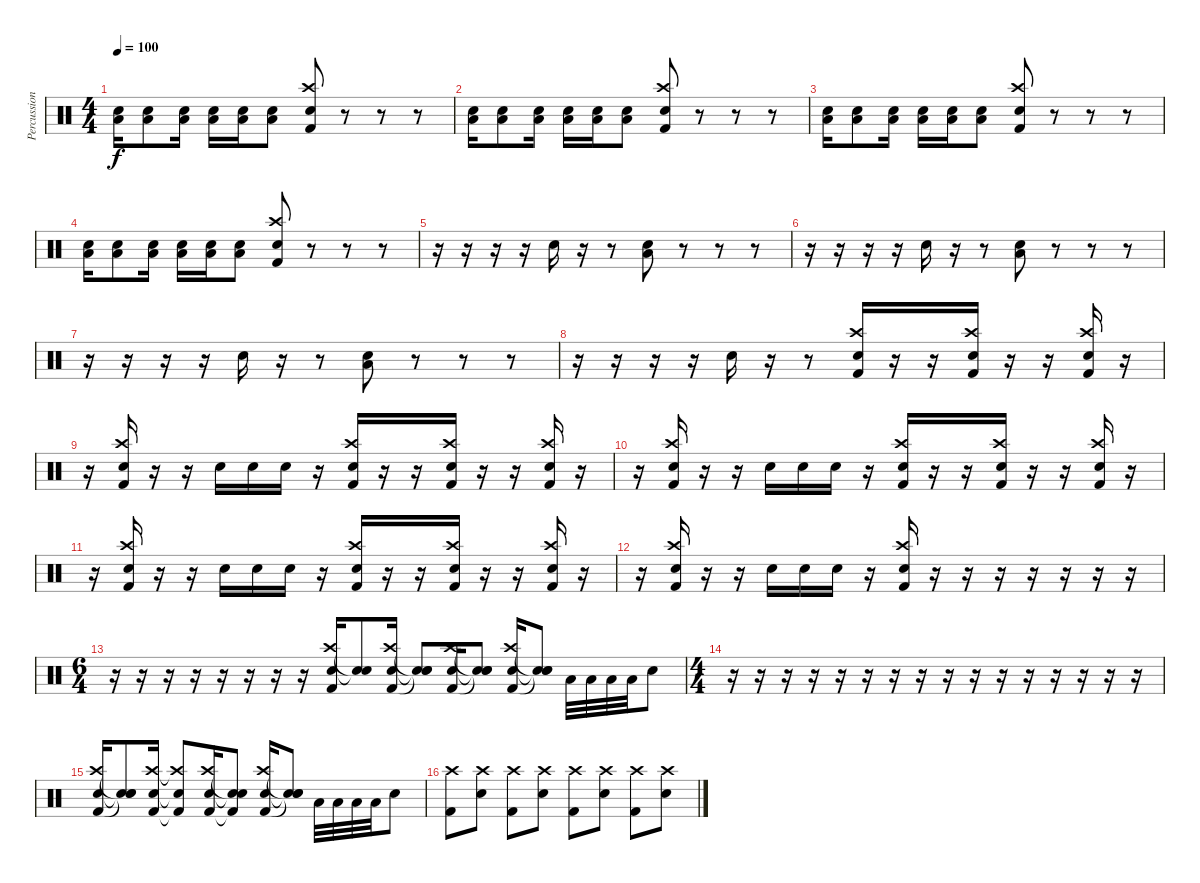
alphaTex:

\track ("Percussion" "Percussion") {instrument percussion}
\staff {score}
\articulation defaults
\ts (4 4)
\tempo 100
\clef neutral
\ks c
("Low Tom (hit)" "Snare (hit) 2").16{dy f} ("Low Tom (hit)" "Snare (hit) 2").8 ("Low Tom (hit)" "Snare (hit) 2").16 ("Low Tom (hit)" "Snare (hit) 2").16 ("Low Tom (hit)" "Snare (hit) 2").16 ("Low Tom (hit)" "Snare (hit) 2").8 ("Crash high (hit)" "Snare (hit) 2" "Kick (hit) 2").8 r.8 r.8 r.8 |
("Low Tom (hit)" "Snare (hit) 2").16 ("Low Tom (hit)" "Snare (hit) 2").8 ("Low Tom (hit)" "Snare (hit) 2").16 ("Low Tom (hit)" "Snare (hit) 2").16 ("Low Tom (hit)" "Snare (hit) 2").16 ("Low Tom (hit)" "Snare (hit) 2").8 ("Crash high (hit)" "Snare (hit) 2" "Kick (hit) 2").8 r.8 r.8 r.8 |
("Low Tom (hit)" "Snare (hit) 2").16 ("Low Tom (hit)" "Snare (hit) 2").8 ("Low Tom (hit)" "Snare (hit) 2").16 ("Low Tom (hit)" "Snare (hit) 2").16 ("Low Tom (hit)" "Snare (hit) 2").16 ("Low Tom (hit)" "Snare (hit) 2").8 ("Crash high (hit)" "Snare (hit) 2" "Kick (hit) 2").8 r.8 r.8 r.8 |
("Low Tom (hit)" "Snare (hit) 2").16 ("Low Tom (hit)" "Snare (hit) 2").8 ("Low Tom (hit)" "Snare (hit) 2").16 ("Low Tom (hit)" "Snare (hit) 2").16 ("Low Tom (hit)" "Snare (hit) 2").16 ("Low Tom (hit)" "Snare (hit) 2").8 ("Crash high (hit)" "Snare (hit) 2" "Kick (hit) 2").8 r.8 r.8 r.8 |
r.16 r.16 r.16 r.16 "Snare (hit) 2".16 r.16 r.8 ("Snare (hit) 2" "Low Tom (hit)").8 r.8 r.8 r.8 |
r.16 r.16 r.16 r.16 "Snare (hit) 2".16 r.16 r.8 ("Snare (hit) 2" "Low Tom (hit)").8 r.8 r.8 r.8 |
r.16 r.16 r.16 r.16 "Snare (hit) 2".16 r.16 r.8 ("Snare (hit) 2" "Low Tom (hit)").8 r.8 r.8 r.8 |
r.16 r.16 r.16 r.16 "Snare (hit) 2".16 r.16 r.8 ("Crash high (hit)" "Snare (hit) 2" "Kick (hit) 2").16 r.16 r.16 ("Crash high (hit)" "Snare (hit) 2" "Kick (hit) 2").16 r.16 r.16 ("Crash high (hit)" "Snare (hit) 2" "Kick (hit) 2").16 r.16 |
r.16 ("Crash high (hit)" "Snare (hit) 2" "Kick (hit) 2").16 r.16 r.16 "Snare (hit) 2".16 "Snare (hit) 2".16 "Snare (hit) 2".16 r.16 ("Crash high (hit)" "Snare (hit) 2" "Kick (hit) 2").16 r.16 r.16 ("Crash high (hit)" "Snare (hit) 2" "Kick (hit) 2").16 r.16 r.16 ("Crash high (hit)" "Snare (hit) 2" "Kick (hit) 2").16 r.16 |
r.16 ("Crash high (hit)" "Snare (hit) 2" "Kick (hit) 2").16 r.16 r.16 "Snare (hit) 2".16 "Snare (hit) 2".16 "Snare (hit) 2".16 r.16 ("Crash high (hit)" "Snare (hit) 2" "Kick (hit) 2").16 r.16 r.16 ("Crash high (hit)" "Snare (hit) 2" "Kick (hit) 2").16 r.16 r.16 ("Crash high (hit)" "Snare (hit) 2" "Kick (hit) 2").16 r.16 |
r.16 ("Crash high (hit)" "Snare (hit) 2" "Kick (hit) 2").16 r.16 r.16 "Snare (hit) 2".16 "Snare (hit) 2".16 "Snare (hit) 2".16 r.16 ("Crash high (hit)" "Snare (hit) 2" "Kick (hit) 2").16 r.16 r.16 ("Crash high (hit)" "Snare (hit) 2" "Kick (hit) 2").16 r.16 r.16 ("Crash high (hit)" "Snare (hit) 2" "Kick (hit) 2").16 r.16 |
r.16 ("Crash high (hit)" "Snare (hit) 2" "Kick (hit) 2").16 r.16 r.16 "Snare (hit) 2".16 "Snare (hit) 2".16 "Snare (hit) 2".16 r.16 ("Crash high (hit)" "Snare (hit) 2" "Kick (hit) 2").16 r.16 r.16 r.16 r.16 r.16 r.16 r.16 |
\ts (6 4)
r.16 r.16 r.16 r.16 r.16 r.16 r.16 r.16 ("Crash high (hit)" "Snare (hit) 2" "Kick (hit) 2").16 ("Snare (hit)"{t} "Snare (hit)"{t}).8 ("Crash high (hit)" "Snare (hit) 2" "Kick (hit) 2").16 ("Snare (hit)"{t} "Snare (hit)"{t} "Snare (hit)"{t}).8 ("Crash high (hit)" "Snare (hit) 2" "Kick (hit) 2").16 ("Snare (hit)"{t} "Snare (hit)"{t} "Snare (hit)"{t}).8 ("Crash high (hit)" "Snare (hit) 2" "Kick (hit) 2").16 ("Snare (hit)"{t} "Snare (hit)"{t} "Snare (hit)"{t}).8 "Low Tom (hit)".32 "Low Tom (hit)".32 "Low Tom (hit)".32 "Low Tom (hit)".32 "Snare (hit) 2".8 |
\ts (4 4)
r.16 r.16 r.16 r.16 r.16 r.16 r.16 r.16 r.16 r.16 r.16 r.16 r.16 r.16 r.16 r.16 |
("Crash high (hit)" "Snare (hit) 2" "Kick (hit) 2").16 ("Snare (hit)"{t} "Snare (hit)"{t} "Snare (hit)"{t}).8 ("Crash high (hit)" "Snare (hit) 2" "Kick (hit) 2").16 ("Crash high (hit)"{t} "Snare (hit) 2"{t} "Kick (hit) 2"{t}).8 ("Crash high (hit)" "Snare (hit) 2" "Kick (hit) 2").16 ("Snare (hit)"{t} "Snare (hit)"{t} "Kick (hit) 2"{t}).8 ("Crash high (hit)" "Snare (hit) 2" "Kick (hit) 2").16 ("Snare (hit)"{t} "Snare (hit)"{t} "Snare (hit)"{t}).8 "Low Tom (hit)".32 "Low Tom (hit)".32 "Low Tom (hit)".32 "Low Tom (hit)".32 "Snare (hit) 2".8 |
("Crash high (hit)" "Kick (hit) 2").8 ("Crash high (hit)" "Snare (hit) 2").8 ("Crash high (hit)" "Kick (hit) 2").8 ("Crash high (hit)" "Snare (hit) 2").8 ("Crash high (hit)" "Kick (hit) 2").8 ("Crash high (hit)" "Snare (hit) 2").8 ("Crash high (hit)" "Kick (hit) 2").8 ("Crash high (hit)" "Snare (hit) 2").8
